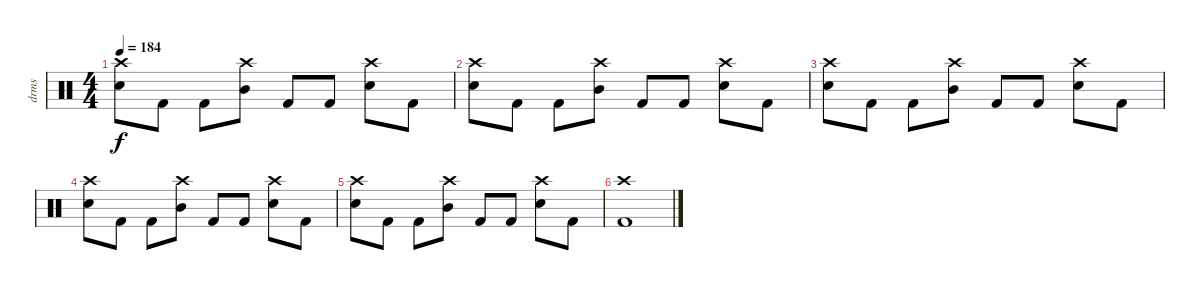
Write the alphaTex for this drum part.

\track ("drms" "drms") {instrument percussion}
\staff {score}
\articulation defaults
\ts (4 4)
\tempo 184
\clef neutral
\ks c
("Crash high (hit)" "Snare (hit) 2").8{dy f} "Kick (hit) 2".8 "Kick (hit) 2".8 ("Crash high (hit)" "Mid Tom (hit)").8 "Kick (hit) 2".8 "Kick (hit) 2".8 ("Crash high (hit)" "Snare (hit) 2").8 "Kick (hit) 2".8 |
("Crash high (hit)" "Snare (hit) 2").8 "Kick (hit) 2".8 "Kick (hit) 2".8 ("Crash high (hit)" "Mid Tom (hit)").8 "Kick (hit) 2".8 "Kick (hit) 2".8 ("Crash high (hit)" "Snare (hit) 2").8 "Kick (hit) 2".8 |
("Crash high (hit)" "Snare (hit) 2").8 "Kick (hit) 2".8 "Kick (hit) 2".8 ("Crash high (hit)" "Mid Tom (hit)").8 "Kick (hit) 2".8 "Kick (hit) 2".8 ("Crash high (hit)" "Snare (hit) 2").8 "Kick (hit) 2".8 |
("Crash high (hit)" "Snare (hit) 2").8 "Kick (hit) 2".8 "Kick (hit) 2".8 ("Crash high (hit)" "Mid Tom (hit)").8 "Kick (hit) 2".8 "Kick (hit) 2".8 ("Crash high (hit)" "Snare (hit) 2").8 "Kick (hit) 2".8 |
("Crash high (hit)" "Snare (hit) 2").8 "Kick (hit) 2".8 "Kick (hit) 2".8 ("Crash high (hit)" "Mid Tom (hit)").8 "Kick (hit) 2".8 "Kick (hit) 2".8 ("Crash high (hit)" "Snare (hit) 2").8 "Kick (hit) 2".8 |
("Crash high (hit)" "Kick (hit) 2").1
